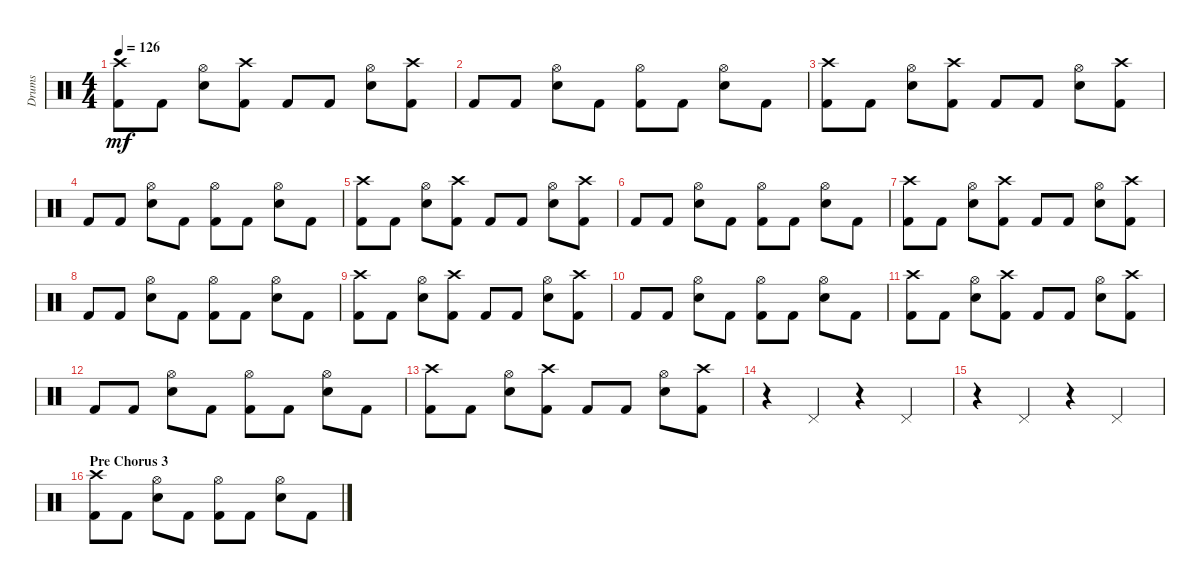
\track ("Drums" "Drums") {instrument percussion}
\staff {score}
\articulation defaults
\ts (4 4)
\tempo 126
\clef neutral
\ks c
("Crash high (hit)" "Kick (hit) 2").8{dy mf} "Kick (hit) 2".8 ("Hi-Hat (open)" "Electric Snare (hit)").8 ("Crash high (hit)" "Kick (hit) 2").8 "Kick (hit) 2".8 "Kick (hit) 2".8 ("Hi-Hat (open)" "Electric Snare (hit)").8 ("Crash high (hit)" "Kick (hit) 2").8 |
"Kick (hit) 2".8 "Kick (hit) 2".8 ("Hi-Hat (open)" "Electric Snare (hit)").8 "Kick (hit) 2".8 ("Hi-Hat (open)" "Kick (hit) 2").8 "Kick (hit) 2".8 ("Hi-Hat (open)" "Electric Snare (hit)").8 "Kick (hit) 2".8 |
("Crash high (hit)" "Kick (hit) 2").8 "Kick (hit) 2".8 ("Hi-Hat (open)" "Electric Snare (hit)").8 ("Crash high (hit)" "Kick (hit) 2").8 "Kick (hit) 2".8 "Kick (hit) 2".8 ("Hi-Hat (open)" "Electric Snare (hit)").8 ("Crash high (hit)" "Kick (hit) 2").8 |
"Kick (hit) 2".8 "Kick (hit) 2".8 ("Hi-Hat (open)" "Electric Snare (hit)").8 "Kick (hit) 2".8 ("Hi-Hat (open)" "Kick (hit) 2").8 "Kick (hit) 2".8 ("Hi-Hat (open)" "Electric Snare (hit)").8 "Kick (hit) 2".8 |
("Crash high (hit)" "Kick (hit) 2").8 "Kick (hit) 2".8 ("Hi-Hat (open)" "Electric Snare (hit)").8 ("Crash high (hit)" "Kick (hit) 2").8 "Kick (hit) 2".8 "Kick (hit) 2".8 ("Hi-Hat (open)" "Electric Snare (hit)").8 ("Crash high (hit)" "Kick (hit) 2").8 |
"Kick (hit) 2".8 "Kick (hit) 2".8 ("Hi-Hat (open)" "Electric Snare (hit)").8 "Kick (hit) 2".8 ("Hi-Hat (open)" "Kick (hit) 2").8 "Kick (hit) 2".8 ("Hi-Hat (open)" "Electric Snare (hit)").8 "Kick (hit) 2".8 |
("Crash high (hit)" "Kick (hit) 2").8 "Kick (hit) 2".8 ("Hi-Hat (open)" "Electric Snare (hit)").8 ("Crash high (hit)" "Kick (hit) 2").8 "Kick (hit) 2".8 "Kick (hit) 2".8 ("Hi-Hat (open)" "Electric Snare (hit)").8 ("Crash high (hit)" "Kick (hit) 2").8 |
"Kick (hit) 2".8 "Kick (hit) 2".8 ("Hi-Hat (open)" "Electric Snare (hit)").8 "Kick (hit) 2".8 ("Hi-Hat (open)" "Kick (hit) 2").8 "Kick (hit) 2".8 ("Hi-Hat (open)" "Electric Snare (hit)").8 "Kick (hit) 2".8 |
("Crash high (hit)" "Kick (hit) 2").8 "Kick (hit) 2".8 ("Hi-Hat (open)" "Electric Snare (hit)").8 ("Crash high (hit)" "Kick (hit) 2").8 "Kick (hit) 2".8 "Kick (hit) 2".8 ("Hi-Hat (open)" "Electric Snare (hit)").8 ("Crash high (hit)" "Kick (hit) 2").8 |
"Kick (hit) 2".8 "Kick (hit) 2".8 ("Hi-Hat (open)" "Electric Snare (hit)").8 "Kick (hit) 2".8 ("Hi-Hat (open)" "Kick (hit) 2").8 "Kick (hit) 2".8 ("Hi-Hat (open)" "Electric Snare (hit)").8 "Kick (hit) 2".8 |
("Crash high (hit)" "Kick (hit) 2").8 "Kick (hit) 2".8 ("Hi-Hat (open)" "Electric Snare (hit)").8 ("Crash high (hit)" "Kick (hit) 2").8 "Kick (hit) 2".8 "Kick (hit) 2".8 ("Hi-Hat (open)" "Electric Snare (hit)").8 ("Crash high (hit)" "Kick (hit) 2").8 |
"Kick (hit) 2".8 "Kick (hit) 2".8 ("Hi-Hat (open)" "Electric Snare (hit)").8 "Kick (hit) 2".8 ("Hi-Hat (open)" "Kick (hit) 2").8 "Kick (hit) 2".8 ("Hi-Hat (open)" "Electric Snare (hit)").8 "Kick (hit) 2".8 |
("Crash high (hit)" "Kick (hit) 2").8 "Kick (hit) 2".8 ("Hi-Hat (open)" "Electric Snare (hit)").8 ("Crash high (hit)" "Kick (hit) 2").8 "Kick (hit) 2".8 "Kick (hit) 2".8 ("Hi-Hat (open)" "Electric Snare (hit)").8 ("Crash high (hit)" "Kick (hit) 2").8 |
r.4 "Pedal Hi-Hat (hit)".4 r.4 "Pedal Hi-Hat (hit)".4 |
r.4 "Pedal Hi-Hat (hit)".4 r.4 "Pedal Hi-Hat (hit)".4 |
\section ("" "Pre Chorus 3")
("Crash high (hit)" "Kick (hit) 2").8 "Kick (hit) 2".8 ("Hi-Hat (open)" "Electric Snare (hit)").8 "Kick (hit) 2".8 ("Hi-Hat (open)" "Kick (hit) 2").8 "Kick (hit) 2".8 ("Hi-Hat (open)" "Electric Snare (hit)").8 "Kick (hit) 2".8
